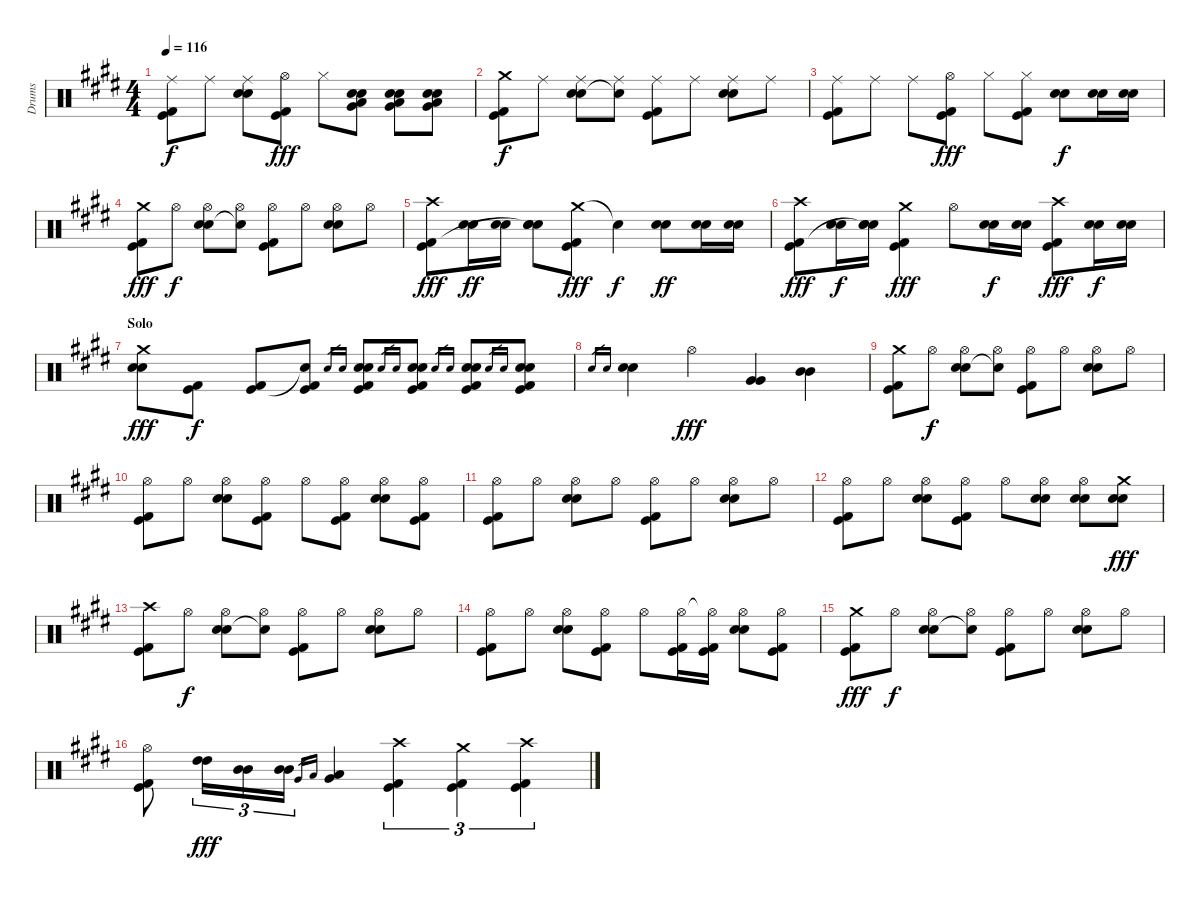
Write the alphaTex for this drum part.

\track ("Drums" "Drums") {instrument percussion}
\staff {score}
\articulation defaults
\ts (4 4)
\tempo 116
\clef neutral
\ks e
("Ride (middle)" "Kick (hit)" "Kick (hit) 2").8{dy f} "Ride (middle)".8 ("Ride (middle)" "Electric Snare (hit)" "Snare (hit) 2").8 ("Hi-Hat (open)" "Kick (hit)" "Kick (hit) 2").8{dy fff} "Hi-Hat (closed)".8 ("Electric Snare (hit)" "Snare (hit) 2" "Very Low Tom (hit)" "Low Floor Tom (hit)").8 ("Electric Snare (hit)" "Snare (hit) 2" "Very Low Tom (hit)" "Low Floor Tom (hit)").8 ("Electric Snare (hit)" "Snare (hit) 2" "Very Low Tom (hit)" "Low Floor Tom (hit)").8 |
("Crash medium (hit)" "Kick (hit)" "Kick (hit) 2").8{dy f} "Ride (middle)".8 ("Ride (middle)" "Electric Snare (hit)" "Snare (hit) 2").8 ("Ride (middle)" "Snare (hit)"{t}).8 ("Ride (middle)" "Kick (hit)" "Kick (hit) 2").8 "Ride (middle)".8 ("Ride (middle)" "Electric Snare (hit)" "Snare (hit) 2").8 "Ride (middle)".8 |
("Ride (middle)" "Kick (hit)" "Kick (hit) 2").8 "Ride (middle)".8 "Ride (middle)".8 ("Hi-Hat (open)" "Kick (hit)" "Kick (hit) 2").8{dy fff} "Hi-Hat (closed)".8 ("Hi-Hat (closed)" "Kick (hit)" "Kick (hit) 2").8 ("Electric Snare (hit)" "Snare (hit) 2").8{dy f} ("Electric Snare (hit)" "Snare (hit) 2").16 ("Electric Snare (hit)" "Snare (hit) 2").16 |
("Crash medium (hit)" "Kick (hit)" "Kick (hit) 2").8{dy fff} "Hi-Hat (open)".8{dy f} ("Hi-Hat (open)" "Electric Snare (hit)" "Snare (hit) 2").8 ("Hi-Hat (open)" "Snare (hit)"{t}).8 ("Hi-Hat (open)" "Kick (hit)" "Kick (hit) 2").8 "Hi-Hat (open)".8 ("Hi-Hat (open)" "Electric Snare (hit)" "Snare (hit) 2").8 "Hi-Hat (open)".8 |
("Crash high (hit)" "Kick (hit)" "Kick (hit) 2").8{dy fff} ("Electric Snare (hit)" "Snare (hit) 2").16{dy ff} ("Electric Snare (hit)" "Snare (hit) 2").16 ("Electric Snare (hit)" "Snare (hit) 2" "Snare (hit)"{t}).8 ("Crash medium (hit)" "Kick (hit)" "Kick (hit) 2").8{dy fff} "Snare (hit)"{t}.4{dy f} ("Electric Snare (hit)" "Snare (hit) 2").8{dy ff} ("Electric Snare (hit)" "Snare (hit) 2").16 ("Electric Snare (hit)" "Snare (hit) 2").16 |
("Crash high (hit)" "Kick (hit)" "Kick (hit) 2").8{dy fff} ("Electric Snare (hit)" "Snare (hit) 2").16{dy f} ("Electric Snare (hit)" "Snare (hit) 2" "Snare (hit)"{t}).16 ("Crash medium (hit)" "Kick (hit)" "Kick (hit) 2").4{dy fff} "Hi-Hat (open)".8 ("Electric Snare (hit)" "Snare (hit) 2").16{dy f} ("Electric Snare (hit)" "Snare (hit) 2").16 ("Crash high (hit)" "Kick (hit)" "Kick (hit) 2").8{dy fff} ("Electric Snare (hit)" "Snare (hit) 2").16{dy f} ("Electric Snare (hit)" "Snare (hit) 2").16 |
\section ("" "Solo")
("Electric Snare (hit)" "Snare (hit) 2" "Crash medium (hit)").8{dy fff} ("Kick (hit)" "Kick (hit) 2").8{dy f} ("Kick (hit)" "Kick (hit) 2").8 ("Snare (hit)"{t} "Kick (hit)" "Kick (hit) 2").8 "Electric Snare (hit)".16{gr} "Snare (hit) 2".16{gr} ("Electric Snare (hit)" "Snare (hit) 2" "Kick (hit)" "Kick (hit) 2").8 "Electric Snare (hit)".16{gr} "Snare (hit) 2".16{gr} ("Electric Snare (hit)" "Snare (hit) 2" "Kick (hit)" "Kick (hit) 2").8 "Electric Snare (hit)".16{gr} "Snare (hit) 2".16{gr} ("Electric Snare (hit)" "Snare (hit) 2" "Kick (hit)" "Kick (hit) 2").8 "Electric Snare (hit)".16{gr} "Snare (hit) 2".16{gr} ("Electric Snare (hit)" "Snare (hit) 2" "Kick (hit)" "Kick (hit) 2").8 |
"Electric Snare (hit)".16{gr} "Snare (hit) 2".16{gr} ("Electric Snare (hit)" "Snare (hit) 2").4 "Hi-Hat (open)".4{dy fff} ("Very Low Tom (hit)" "Very Low Tom (hit)").4 ("Mid Tom (hit)" "Mid Tom (hit)").4 |
("Crash medium (hit)" "Kick (hit)" "Kick (hit) 2").8 "Hi-Hat (open)".8{dy f} ("Hi-Hat (open)" "Electric Snare (hit)" "Snare (hit) 2").8 ("Hi-Hat (open)" "Snare (hit)"{t}).8 ("Hi-Hat (open)" "Kick (hit)" "Kick (hit) 2").8 "Hi-Hat (open)".8 ("Hi-Hat (open)" "Electric Snare (hit)" "Snare (hit) 2").8 "Hi-Hat (open)".8 |
("Hi-Hat (open)" "Kick (hit)" "Kick (hit) 2").8 "Hi-Hat (open)".8 ("Hi-Hat (open)" "Electric Snare (hit)" "Snare (hit) 2").8 ("Hi-Hat (open)" "Kick (hit)" "Kick (hit) 2").8 "Hi-Hat (open)".8 ("Hi-Hat (open)" "Kick (hit)" "Kick (hit) 2").8 ("Hi-Hat (open)" "Electric Snare (hit)" "Snare (hit) 2").8 ("Hi-Hat (open)" "Kick (hit)" "Kick (hit) 2").8 |
("Hi-Hat (open)" "Kick (hit)" "Kick (hit) 2").8 "Hi-Hat (open)".8 ("Hi-Hat (open)" "Electric Snare (hit)" "Snare (hit) 2").8 "Hi-Hat (open)".8 ("Hi-Hat (open)" "Kick (hit)" "Kick (hit) 2").8 "Hi-Hat (open)".8 ("Hi-Hat (open)" "Electric Snare (hit)" "Snare (hit) 2").8 "Hi-Hat (open)".8 |
("Hi-Hat (open)" "Kick (hit)" "Kick (hit) 2").8 "Hi-Hat (open)".8 ("Hi-Hat (open)" "Electric Snare (hit)" "Snare (hit) 2").8 ("Hi-Hat (open)" "Kick (hit)" "Kick (hit) 2").8 "Hi-Hat (open)".8 ("Hi-Hat (open)" "Electric Snare (hit)" "Snare (hit) 2").8 ("Hi-Hat (open)" "Electric Snare (hit)" "Snare (hit) 2").8 ("Electric Snare (hit)" "Snare (hit) 2" "Crash medium (hit)").8{dy fff} |
("Crash high (hit)" "Kick (hit)" "Kick (hit) 2").8 "Hi-Hat (open)".8{dy f} ("Hi-Hat (open)" "Electric Snare (hit)" "Snare (hit) 2").8 ("Hi-Hat (open)" "Snare (hit)"{t}).8 ("Hi-Hat (open)" "Kick (hit)" "Kick (hit) 2").8 "Hi-Hat (open)".8 ("Hi-Hat (open)" "Electric Snare (hit)" "Snare (hit) 2").8 "Hi-Hat (open)".8 |
("Hi-Hat (open)" "Kick (hit)" "Kick (hit) 2").8 "Hi-Hat (open)".8 ("Hi-Hat (open)" "Electric Snare (hit)" "Snare (hit) 2").8 ("Hi-Hat (open)" "Kick (hit)" "Kick (hit) 2").8 "Hi-Hat (open)".8 ("Hi-Hat (open)" "Kick (hit)" "Kick (hit) 2").16 ("Hi-Hat (open)"{t} "Kick (hit)" "Kick (hit) 2").16 ("Hi-Hat (open)" "Electric Snare (hit)" "Snare (hit) 2").8 ("Hi-Hat (open)" "Kick (hit)" "Kick (hit) 2").8 |
("Crash medium (hit)" "Kick (hit)" "Kick (hit) 2").8{dy fff} "Hi-Hat (open)".8{dy f} ("Hi-Hat (open)" "Electric Snare (hit)" "Snare (hit) 2").8 ("Hi-Hat (open)" "Snare (hit)"{t}).8 ("Hi-Hat (open)" "Kick (hit)" "Kick (hit) 2").8 "Hi-Hat (open)".8 ("Hi-Hat (open)" "Electric Snare (hit)" "Snare (hit) 2").8 "Hi-Hat (open)".8 |
("Hi-Hat (open)" "Kick (hit)" "Kick (hit) 2").8 ("High Tom (hit)" "High Tom (hit)").16{tu (3 2) dy fff} ("Mid Tom (hit)" "Mid Tom (hit)").16{tu (3 2)} ("Mid Tom (hit)" "Mid Tom (hit)").16{tu (3 2)} "Very Low Tom (hit)".16{gr} "Low Floor Tom (hit)".16{gr} ("Very Low Tom (hit)" "Low Floor Tom (hit)").4 ("Crash high (hit)" "Kick (hit)" "Kick (hit) 2").4{tu (3 2)} ("Crash medium (hit)" "Kick (hit)" "Kick (hit) 2").4{tu (3 2)} ("Crash high (hit)" "Kick (hit)" "Kick (hit) 2").4{tu (3 2)}
